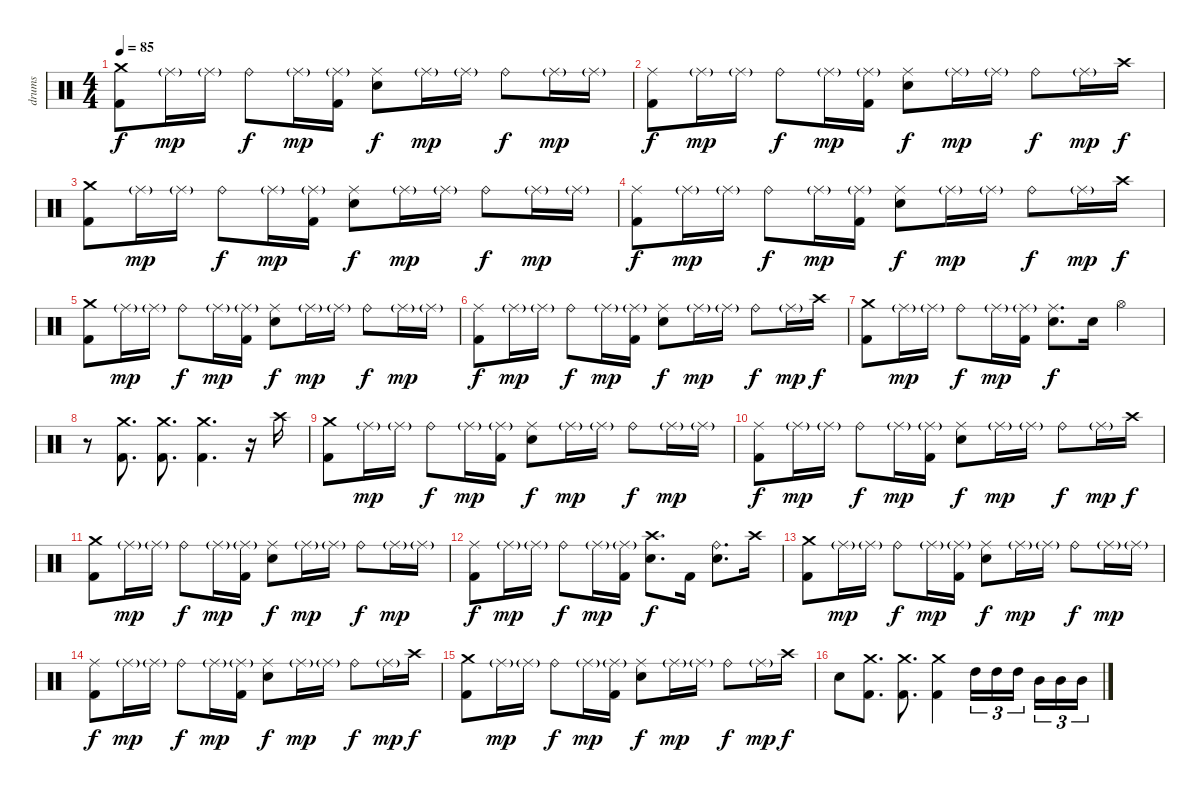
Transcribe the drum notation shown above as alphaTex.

\track ("drums" "drums") {instrument percussion}
\staff {score}
\articulation defaults
\ts (4 4)
\tempo 85
\clef neutral
\ks c
("Crash medium (hit)" "Kick (hit) 2").8{dy f} "Ride (middle)"{g}.16{dy mp} "Ride (middle)"{g}.16 "Ride (bell)".8{dy f} "Ride (middle)"{g}.16{dy mp} ("Ride (middle)"{g} "Kick (hit) 2").16 ("Ride (middle)" "Electric Snare (hit)").8{dy f} "Ride (middle)"{g}.16{dy mp} "Ride (middle)"{g}.16 "Ride (bell)".8{dy f} "Ride (middle)"{g}.16{dy mp} "Ride (middle)"{g}.16 |
("Ride (middle)" "Kick (hit) 2").8{dy f} "Ride (middle)"{g}.16{dy mp} "Ride (middle)"{g}.16 "Ride (bell)".8{dy f} "Ride (middle)"{g}.16{dy mp} ("Ride (middle)"{g} "Kick (hit) 2").16 ("Ride (middle)" "Electric Snare (hit)").8{dy f} "Ride (middle)"{g}.16{dy mp} "Ride (middle)"{g}.16 "Ride (bell)".8{dy f} "Ride (middle)"{g}.16{dy mp} "Crash high (hit)".16{dy f} |
("Crash medium (hit)" "Kick (hit) 2").8 "Ride (middle)"{g}.16{dy mp} "Ride (middle)"{g}.16 "Ride (bell)".8{dy f} "Ride (middle)"{g}.16{dy mp} ("Ride (middle)"{g} "Kick (hit) 2").16 ("Ride (middle)" "Electric Snare (hit)").8{dy f} "Ride (middle)"{g}.16{dy mp} "Ride (middle)"{g}.16 "Ride (bell)".8{dy f} "Ride (middle)"{g}.16{dy mp} "Ride (middle)"{g}.16 |
("Ride (middle)" "Kick (hit) 2").8{dy f} "Ride (middle)"{g}.16{dy mp} "Ride (middle)"{g}.16 "Ride (bell)".8{dy f} "Ride (middle)"{g}.16{dy mp} ("Ride (middle)"{g} "Kick (hit) 2").16 ("Ride (middle)" "Electric Snare (hit)").8{dy f} "Ride (middle)"{g}.16{dy mp} "Ride (middle)"{g}.16 "Ride (bell)".8{dy f} "Ride (middle)"{g}.16{dy mp} "Crash high (hit)".16{dy f} |
("Crash medium (hit)" "Kick (hit) 2").8 "Ride (middle)"{g}.16{dy mp} "Ride (middle)"{g}.16 "Ride (bell)".8{dy f} "Ride (middle)"{g}.16{dy mp} ("Ride (middle)"{g} "Kick (hit) 2").16 ("Ride (middle)" "Electric Snare (hit)").8{dy f} "Ride (middle)"{g}.16{dy mp} "Ride (middle)"{g}.16 "Ride (bell)".8{dy f} "Ride (middle)"{g}.16{dy mp} "Ride (middle)"{g}.16 |
("Ride (middle)" "Kick (hit) 2").8{dy f} "Ride (middle)"{g}.16{dy mp} "Ride (middle)"{g}.16 "Ride (bell)".8{dy f} "Ride (middle)"{g}.16{dy mp} ("Ride (middle)"{g} "Kick (hit) 2").16 ("Ride (middle)" "Electric Snare (hit)").8{dy f} "Ride (middle)"{g}.16{dy mp} "Ride (middle)"{g}.16 "Ride (bell)".8{dy f} "Ride (middle)"{g}.16{dy mp} "Crash high (hit)".16{dy f} |
("Crash medium (hit)" "Kick (hit) 2").8 "Ride (middle)"{g}.16{dy mp} "Ride (middle)"{g}.16 "Ride (bell)".8{dy f} "Ride (middle)"{g}.16{dy mp} ("Ride (middle)"{g} "Kick (hit) 2").16 ("Ride (middle)" "Electric Snare (hit)").8{d dy f} "Electric Snare (hit)".16 "Hi-Hat (open)".4 |
r.8 ("Crash medium (hit)" "Kick (hit) 2").8{d} ("Crash medium (hit)" "Kick (hit) 2").8{d} ("Crash medium (hit)" "Kick (hit) 2").4{d} r.16 "Crash high (hit)".16 |
("Crash medium (hit)" "Kick (hit) 2").8 "Ride (middle)"{g}.16{dy mp} "Ride (middle)"{g}.16 "Ride (bell)".8{dy f} "Ride (middle)"{g}.16{dy mp} ("Ride (middle)"{g} "Kick (hit) 2").16 ("Ride (middle)" "Electric Snare (hit)").8{dy f} "Ride (middle)"{g}.16{dy mp} "Ride (middle)"{g}.16 "Ride (bell)".8{dy f} "Ride (middle)"{g}.16{dy mp} "Ride (middle)"{g}.16 |
("Ride (middle)" "Kick (hit) 2").8{dy f} "Ride (middle)"{g}.16{dy mp} "Ride (middle)"{g}.16 "Ride (bell)".8{dy f} "Ride (middle)"{g}.16{dy mp} ("Ride (middle)"{g} "Kick (hit) 2").16 ("Ride (middle)" "Electric Snare (hit)").8{dy f} "Ride (middle)"{g}.16{dy mp} "Ride (middle)"{g}.16 "Ride (bell)".8{dy f} "Ride (middle)"{g}.16{dy mp} "Crash high (hit)".16{dy f} |
("Crash medium (hit)" "Kick (hit) 2").8 "Ride (middle)"{g}.16{dy mp} "Ride (middle)"{g}.16 "Ride (bell)".8{dy f} "Ride (middle)"{g}.16{dy mp} ("Ride (middle)"{g} "Kick (hit) 2").16 ("Ride (middle)" "Electric Snare (hit)").8{dy f} "Ride (middle)"{g}.16{dy mp} "Ride (middle)"{g}.16 "Ride (bell)".8{dy f} "Ride (middle)"{g}.16{dy mp} "Ride (middle)"{g}.16 |
("Ride (middle)" "Kick (hit) 2").8{dy f} "Ride (middle)"{g}.16{dy mp} "Ride (middle)"{g}.16 "Ride (bell)".8{dy f} "Ride (middle)"{g}.16{dy mp} ("Ride (middle)"{g} "Kick (hit) 2").16 ("Crash high (hit)" "Electric Snare (hit)").8{d dy f} "Kick (hit) 2".16 ("Ride (bell)" "Electric Snare (hit)").8{d} "Crash high (hit)".16 |
("Crash medium (hit)" "Kick (hit) 2").8 "Ride (middle)"{g}.16{dy mp} "Ride (middle)"{g}.16 "Ride (bell)".8{dy f} "Ride (middle)"{g}.16{dy mp} ("Ride (middle)"{g} "Kick (hit) 2").16 ("Ride (middle)" "Electric Snare (hit)").8{dy f} "Ride (middle)"{g}.16{dy mp} "Ride (middle)"{g}.16 "Ride (bell)".8{dy f} "Ride (middle)"{g}.16{dy mp} "Ride (middle)"{g}.16 |
("Ride (middle)" "Kick (hit) 2").8{dy f} "Ride (middle)"{g}.16{dy mp} "Ride (middle)"{g}.16 "Ride (bell)".8{dy f} "Ride (middle)"{g}.16{dy mp} ("Ride (middle)"{g} "Kick (hit) 2").16 ("Ride (middle)" "Electric Snare (hit)").8{dy f} "Ride (middle)"{g}.16{dy mp} "Ride (middle)"{g}.16 "Ride (bell)".8{dy f} "Ride (middle)"{g}.16{dy mp} "Crash high (hit)".16{dy f} |
("Crash medium (hit)" "Kick (hit) 2").8 "Ride (middle)"{g}.16{dy mp} "Ride (middle)"{g}.16 "Ride (bell)".8{dy f} "Ride (middle)"{g}.16{dy mp} ("Ride (middle)"{g} "Kick (hit) 2").16 ("Ride (middle)" "Electric Snare (hit)").8{dy f} "Ride (middle)"{g}.16{dy mp} "Ride (middle)"{g}.16 "Ride (bell)".8{dy f} "Ride (middle)"{g}.16{dy mp} "Crash high (hit)".16{dy f} |
"Electric Snare (hit)".8 ("Crash medium (hit)" "Kick (hit) 2").8{d} ("Crash medium (hit)" "Kick (hit) 2").8{d} ("Crash medium (hit)" "Kick (hit) 2").4 "High Tom (hit)".16{tu (3 2)} "High Tom (hit)".16{tu (3 2)} "High Tom (hit)".16{tu (3 2) beam splitsecondary} "Mid Tom (hit)".16{tu (3 2)} "Mid Tom (hit)".16{tu (3 2)} "Mid Tom (hit)".16{tu (3 2)}
